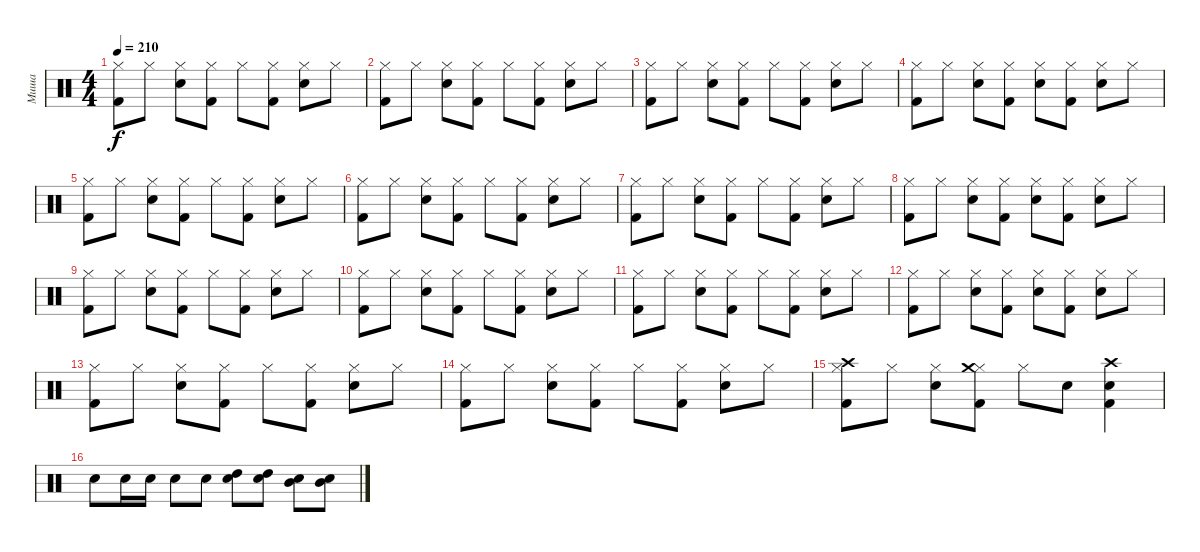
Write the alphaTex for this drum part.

\track ("Миша" "Миша") {instrument percussion}
\staff {score}
\articulation defaults
\ts (4 4)
\tempo 210
\clef neutral
\ks c
("Hi-Hat (closed)" "Kick (hit) 2").8{dy f} "Hi-Hat (closed)".8 ("Hi-Hat (closed)" "Snare (hit) 2").8 ("Hi-Hat (closed)" "Kick (hit) 2").8 "Hi-Hat (closed)".8 ("Hi-Hat (closed)" "Kick (hit) 2").8 ("Hi-Hat (closed)" "Snare (hit) 2").8 "Hi-Hat (closed)".8 |
("Hi-Hat (closed)" "Kick (hit) 2").8 "Hi-Hat (closed)".8 ("Hi-Hat (closed)" "Snare (hit) 2").8 ("Hi-Hat (closed)" "Kick (hit) 2").8 "Hi-Hat (closed)".8 ("Hi-Hat (closed)" "Kick (hit) 2").8 ("Hi-Hat (closed)" "Snare (hit) 2").8 "Hi-Hat (closed)".8 |
("Hi-Hat (closed)" "Kick (hit) 2").8 "Hi-Hat (closed)".8 ("Hi-Hat (closed)" "Snare (hit) 2").8 ("Hi-Hat (closed)" "Kick (hit) 2").8 "Hi-Hat (closed)".8 ("Hi-Hat (closed)" "Kick (hit) 2").8 ("Hi-Hat (closed)" "Snare (hit) 2").8 "Hi-Hat (closed)".8 |
("Hi-Hat (closed)" "Kick (hit) 2").8 "Hi-Hat (closed)".8 ("Hi-Hat (closed)" "Snare (hit) 2").8 ("Hi-Hat (closed)" "Kick (hit) 2").8 ("Hi-Hat (closed)" "Snare (hit) 2").8 ("Hi-Hat (closed)" "Kick (hit) 2").8 ("Hi-Hat (closed)" "Snare (hit) 2").8 "Hi-Hat (closed)".8 |
("Hi-Hat (closed)" "Kick (hit) 2").8 "Hi-Hat (closed)".8 ("Hi-Hat (closed)" "Snare (hit) 2").8 ("Hi-Hat (closed)" "Kick (hit) 2").8 "Hi-Hat (closed)".8 ("Hi-Hat (closed)" "Kick (hit) 2").8 ("Hi-Hat (closed)" "Snare (hit) 2").8 "Hi-Hat (closed)".8 |
("Hi-Hat (closed)" "Kick (hit) 2").8 "Hi-Hat (closed)".8 ("Hi-Hat (closed)" "Snare (hit) 2").8 ("Hi-Hat (closed)" "Kick (hit) 2").8 "Hi-Hat (closed)".8 ("Hi-Hat (closed)" "Kick (hit) 2").8 ("Hi-Hat (closed)" "Snare (hit) 2").8 "Hi-Hat (closed)".8 |
("Hi-Hat (closed)" "Kick (hit) 2").8 "Hi-Hat (closed)".8 ("Hi-Hat (closed)" "Snare (hit) 2").8 ("Hi-Hat (closed)" "Kick (hit) 2").8 "Hi-Hat (closed)".8 ("Hi-Hat (closed)" "Kick (hit) 2").8 ("Hi-Hat (closed)" "Snare (hit) 2").8 "Hi-Hat (closed)".8 |
("Hi-Hat (closed)" "Kick (hit) 2").8 "Hi-Hat (closed)".8 ("Hi-Hat (closed)" "Snare (hit) 2").8 ("Hi-Hat (closed)" "Kick (hit) 2").8 ("Hi-Hat (closed)" "Snare (hit) 2").8 ("Hi-Hat (closed)" "Kick (hit) 2").8 ("Hi-Hat (closed)" "Snare (hit) 2").8 "Hi-Hat (closed)".8 |
("Hi-Hat (closed)" "Kick (hit) 2").8 "Hi-Hat (closed)".8 ("Hi-Hat (closed)" "Snare (hit) 2").8 ("Hi-Hat (closed)" "Kick (hit) 2").8 "Hi-Hat (closed)".8 ("Hi-Hat (closed)" "Kick (hit) 2").8 ("Hi-Hat (closed)" "Snare (hit) 2").8 "Hi-Hat (closed)".8 |
("Hi-Hat (closed)" "Kick (hit) 2").8 "Hi-Hat (closed)".8 ("Hi-Hat (closed)" "Snare (hit) 2").8 ("Hi-Hat (closed)" "Kick (hit) 2").8 "Hi-Hat (closed)".8 ("Hi-Hat (closed)" "Kick (hit) 2").8 ("Hi-Hat (closed)" "Snare (hit) 2").8 "Hi-Hat (closed)".8 |
("Hi-Hat (closed)" "Kick (hit) 2").8 "Hi-Hat (closed)".8 ("Hi-Hat (closed)" "Snare (hit) 2").8 ("Hi-Hat (closed)" "Kick (hit) 2").8 "Hi-Hat (closed)".8 ("Hi-Hat (closed)" "Kick (hit) 2").8 ("Hi-Hat (closed)" "Snare (hit) 2").8 "Hi-Hat (closed)".8 |
("Hi-Hat (closed)" "Kick (hit) 2").8 "Hi-Hat (closed)".8 ("Hi-Hat (closed)" "Snare (hit) 2").8 ("Hi-Hat (closed)" "Kick (hit) 2").8 ("Hi-Hat (closed)" "Snare (hit) 2").8 ("Hi-Hat (closed)" "Kick (hit) 2").8 ("Hi-Hat (closed)" "Snare (hit) 2").8 "Hi-Hat (closed)".8 |
("Hi-Hat (closed)" "Kick (hit) 2").8 "Hi-Hat (closed)".8 ("Hi-Hat (closed)" "Snare (hit) 2").8 ("Hi-Hat (closed)" "Kick (hit) 2").8 "Hi-Hat (closed)".8 ("Hi-Hat (closed)" "Kick (hit) 2").8 ("Hi-Hat (closed)" "Snare (hit) 2").8 "Hi-Hat (closed)".8 |
("Hi-Hat (closed)" "Kick (hit) 2").8 "Hi-Hat (closed)".8 ("Hi-Hat (closed)" "Snare (hit) 2").8 ("Hi-Hat (closed)" "Kick (hit) 2").8 "Hi-Hat (closed)".8 ("Hi-Hat (closed)" "Kick (hit) 2").8 ("Hi-Hat (closed)" "Snare (hit) 2").8 "Hi-Hat (closed)".8 |
("Hi-Hat (closed)" "Kick (hit) 2" "Crash high (hit)").8 "Hi-Hat (closed)".8 ("Hi-Hat (closed)" "Snare (hit) 2").8 ("Hi-Hat (closed)" "Kick (hit) 2" "Crash medium (hit)").8 "Hi-Hat (closed)".8 "Snare (hit) 2".8 ("Kick (hit) 2" "Snare (hit) 2" "Crash high (hit)").4 |
"Snare (hit) 2".8 "Snare (hit) 2".16 "Snare (hit) 2".16 "Snare (hit) 2".8 "Snare (hit) 2".8 ("Snare (hit) 2" "High Tom (hit)").8 ("Snare (hit) 2" "High Tom (hit)").8 ("Snare (hit) 2" "Mid Tom (hit)").8 ("Snare (hit) 2" "Mid Tom (hit)").8
